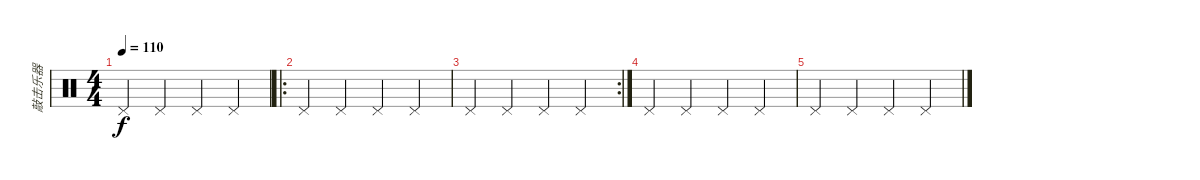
\track ("敲击乐器" "敲击乐器") {instrument percussion}
\staff {score}
\articulation defaults
\ts (4 4)
\tempo 110
\clef neutral
\ks c "Pedal Hi-Hat (hit)".4{dy f} "Pedal Hi-Hat (hit)".4 "Pedal Hi-Hat (hit)".4 "Pedal Hi-Hat (hit)".4
|
\ro "Pedal Hi-Hat (hit)".4 "Pedal Hi-Hat (hit)".4 "Pedal Hi-Hat (hit)".4 "Pedal Hi-Hat (hit)".4
|
\rc 2 "Pedal Hi-Hat (hit)".4 "Pedal Hi-Hat (hit)".4 "Pedal Hi-Hat (hit)".4 "Pedal Hi-Hat (hit)".4
|
"Pedal Hi-Hat (hit)".4 "Pedal Hi-Hat (hit)".4 "Pedal Hi-Hat (hit)".4 "Pedal Hi-Hat (hit)".4 |
"Pedal Hi-Hat (hit)".4 "Pedal Hi-Hat (hit)".4 "Pedal Hi-Hat (hit)".4 "Pedal Hi-Hat (hit)".4
